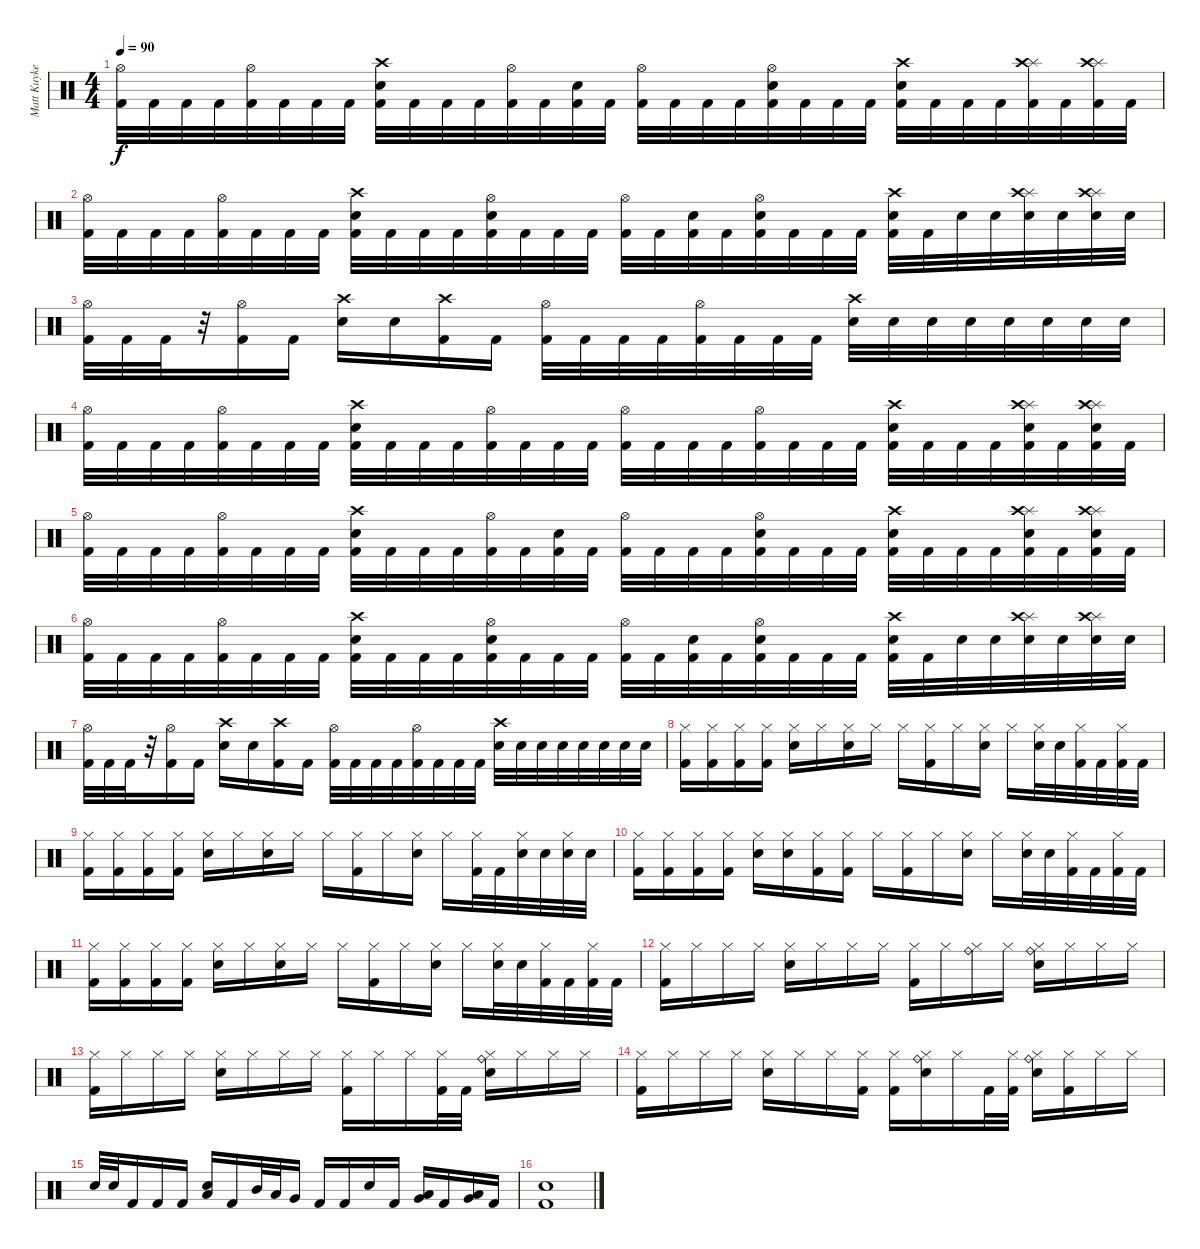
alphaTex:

\track ("Matt Kuykendall (Drums)" "Matt Kuyke") {instrument percussion}
\staff {score}
\articulation defaults
\ts (4 4)
\tempo 90
\clef neutral
\ks c
("Hi-Hat (open)" "Kick (hit) 2").32{dy f} "Kick (hit) 2".32 "Kick (hit) 2".32 "Kick (hit) 2".32 ("Hi-Hat (open)" "Kick (hit) 2").32 "Kick (hit) 2".32 "Kick (hit) 2".32 "Kick (hit) 2".32 ("Crash high (hit)" "Snare (hit) 2" "Kick (hit) 2").32 "Kick (hit) 2".32 "Kick (hit) 2".32 "Kick (hit) 2".32 ("Hi-Hat (open)" "Kick (hit) 2").32 "Kick (hit) 2".32 ("Snare (hit) 2" "Kick (hit) 2").32 "Kick (hit) 2".32 ("Hi-Hat (open)" "Kick (hit) 2").32 "Kick (hit) 2".32 "Kick (hit) 2".32 "Kick (hit) 2".32 ("Hi-Hat (open)" "Snare (hit) 2" "Kick (hit) 2").32 "Kick (hit) 2".32 "Kick (hit) 2".32 "Kick (hit) 2".32 ("Crash high (hit)" "Snare (hit) 2" "Kick (hit) 2").32 "Kick (hit) 2".32 "Kick (hit) 2".32 "Kick (hit) 2".32 ("Splash (hit)" "Crash high (hit)" "Kick (hit) 2").32 "Kick (hit) 2".32 ("Splash (hit)" "Crash high (hit)" "Kick (hit) 2").32 "Kick (hit) 2".32 |
("Hi-Hat (open)" "Kick (hit) 2").32 "Kick (hit) 2".32 "Kick (hit) 2".32 "Kick (hit) 2".32 ("Hi-Hat (open)" "Kick (hit) 2").32 "Kick (hit) 2".32 "Kick (hit) 2".32 "Kick (hit) 2".32 ("Crash high (hit)" "Snare (hit) 2" "Kick (hit) 2").32 "Kick (hit) 2".32 "Kick (hit) 2".32 "Kick (hit) 2".32 ("Hi-Hat (open)" "Snare (hit) 2" "Kick (hit) 2").32 "Kick (hit) 2".32 "Kick (hit) 2".32 "Kick (hit) 2".32 ("Hi-Hat (open)" "Kick (hit) 2").32 "Kick (hit) 2".32 ("Snare (hit) 2" "Kick (hit) 2").32 "Kick (hit) 2".32 ("Hi-Hat (open)" "Snare (hit) 2" "Kick (hit) 2").32 "Kick (hit) 2".32 "Kick (hit) 2".32 "Kick (hit) 2".32 ("Crash high (hit)" "Snare (hit) 2" "Kick (hit) 2").32 "Kick (hit) 2".32 "Snare (hit) 2".32 "Snare (hit) 2".32 ("Splash (hit)" "Crash high (hit)" "Snare (hit) 2").32 "Snare (hit) 2".32 ("Splash (hit)" "Crash high (hit)" "Snare (hit) 2").32 "Snare (hit) 2".32 |
("Hi-Hat (open)" "Kick (hit) 2").32 "Kick (hit) 2".32 "Kick (hit) 2".32 r.32 ("Hi-Hat (open)" "Kick (hit) 2").16 "Kick (hit) 2".16 ("Crash high (hit)" "Snare (hit) 2").16 "Snare (hit) 2".16 ("Crash high (hit)" "Kick (hit) 2").16 "Kick (hit) 2".16 ("Hi-Hat (open)" "Kick (hit) 2").32 "Kick (hit) 2".32 "Kick (hit) 2".32 "Kick (hit) 2".32 ("Hi-Hat (open)" "Kick (hit) 2").32 "Kick (hit) 2".32 "Kick (hit) 2".32 "Kick (hit) 2".32 ("Crash high (hit)" "Snare (hit) 2").32 "Snare (hit) 2".32 "Snare (hit) 2".32 "Snare (hit) 2".32 "Snare (hit) 2".32 "Snare (hit) 2".32 "Snare (hit) 2".32 "Snare (hit) 2".32 |
("Hi-Hat (open)" "Kick (hit) 2").32 "Kick (hit) 2".32 "Kick (hit) 2".32 "Kick (hit) 2".32 ("Hi-Hat (open)" "Kick (hit) 2").32 "Kick (hit) 2".32 "Kick (hit) 2".32 "Kick (hit) 2".32 ("Crash high (hit)" "Snare (hit) 2" "Kick (hit) 2").32 "Kick (hit) 2".32 "Kick (hit) 2".32 "Kick (hit) 2".32 ("Hi-Hat (open)" "Kick (hit) 2").32 "Kick (hit) 2".32 "Kick (hit) 2".32 "Kick (hit) 2".32 ("Hi-Hat (open)" "Kick (hit) 2").32 "Kick (hit) 2".32 "Kick (hit) 2".32 "Kick (hit) 2".32 ("Hi-Hat (open)" "Kick (hit) 2").32 "Kick (hit) 2".32 "Kick (hit) 2".32 "Kick (hit) 2".32 ("Crash high (hit)" "Snare (hit) 2" "Kick (hit) 2").32 "Kick (hit) 2".32 "Kick (hit) 2".32 "Kick (hit) 2".32 ("Splash (hit)" "Crash high (hit)" "Snare (hit) 2" "Kick (hit) 2").32 "Kick (hit) 2".32 ("Splash (hit)" "Crash high (hit)" "Snare (hit) 2" "Kick (hit) 2").32 "Kick (hit) 2".32 |
("Hi-Hat (open)" "Kick (hit) 2").32 "Kick (hit) 2".32 "Kick (hit) 2".32 "Kick (hit) 2".32 ("Hi-Hat (open)" "Kick (hit) 2").32 "Kick (hit) 2".32 "Kick (hit) 2".32 "Kick (hit) 2".32 ("Crash high (hit)" "Snare (hit) 2" "Kick (hit) 2").32 "Kick (hit) 2".32 "Kick (hit) 2".32 "Kick (hit) 2".32 ("Hi-Hat (open)" "Kick (hit) 2").32 "Kick (hit) 2".32 ("Snare (hit) 2" "Kick (hit) 2").32 "Kick (hit) 2".32 ("Hi-Hat (open)" "Kick (hit) 2").32 "Kick (hit) 2".32 "Kick (hit) 2".32 "Kick (hit) 2".32 ("Hi-Hat (open)" "Snare (hit) 2" "Kick (hit) 2").32 "Kick (hit) 2".32 "Kick (hit) 2".32 "Kick (hit) 2".32 ("Crash high (hit)" "Snare (hit) 2" "Kick (hit) 2").32 "Kick (hit) 2".32 "Kick (hit) 2".32 "Kick (hit) 2".32 ("Splash (hit)" "Crash high (hit)" "Snare (hit) 2" "Kick (hit) 2").32 "Kick (hit) 2".32 ("Splash (hit)" "Crash high (hit)" "Snare (hit) 2" "Kick (hit) 2").32 "Kick (hit) 2".32 |
("Hi-Hat (open)" "Kick (hit) 2").32 "Kick (hit) 2".32 "Kick (hit) 2".32 "Kick (hit) 2".32 ("Hi-Hat (open)" "Kick (hit) 2").32 "Kick (hit) 2".32 "Kick (hit) 2".32 "Kick (hit) 2".32 ("Crash high (hit)" "Snare (hit) 2" "Kick (hit) 2").32 "Kick (hit) 2".32 "Kick (hit) 2".32 "Kick (hit) 2".32 ("Hi-Hat (open)" "Snare (hit) 2" "Kick (hit) 2").32 "Kick (hit) 2".32 "Kick (hit) 2".32 "Kick (hit) 2".32 ("Hi-Hat (open)" "Kick (hit) 2").32 "Kick (hit) 2".32 ("Snare (hit) 2" "Kick (hit) 2").32 "Kick (hit) 2".32 ("Hi-Hat (open)" "Snare (hit) 2" "Kick (hit) 2").32 "Kick (hit) 2".32 "Kick (hit) 2".32 "Kick (hit) 2".32 ("Crash high (hit)" "Snare (hit) 2" "Kick (hit) 2").32 "Kick (hit) 2".32 "Snare (hit) 2".32 "Snare (hit) 2".32 ("Splash (hit)" "Crash high (hit)" "Snare (hit) 2").32 "Snare (hit) 2".32 ("Splash (hit)" "Crash high (hit)" "Snare (hit) 2").32 "Snare (hit) 2".32 |
("Hi-Hat (open)" "Kick (hit) 2").32 "Kick (hit) 2".32 "Kick (hit) 2".32 r.32 ("Hi-Hat (open)" "Kick (hit) 2").16 "Kick (hit) 2".16 ("Crash high (hit)" "Snare (hit) 2").16 "Snare (hit) 2".16 ("Crash high (hit)" "Kick (hit) 2").16 "Kick (hit) 2".16 ("Hi-Hat (open)" "Kick (hit) 2").32 "Kick (hit) 2".32 "Kick (hit) 2".32 "Kick (hit) 2".32 ("Hi-Hat (open)" "Kick (hit) 2").32 "Kick (hit) 2".32 "Kick (hit) 2".32 "Kick (hit) 2".32 ("Crash high (hit)" "Snare (hit) 2").32 "Snare (hit) 2".32 "Snare (hit) 2".32 "Snare (hit) 2".32 "Snare (hit) 2".32 "Snare (hit) 2".32 "Snare (hit) 2".32 "Snare (hit) 2".32 |
("Hi-Hat (closed)" "Kick (hit) 2").16 ("Hi-Hat (closed)" "Kick (hit) 2").16 ("Hi-Hat (closed)" "Kick (hit) 2").16 ("Hi-Hat (closed)" "Kick (hit) 2").16 ("Hi-Hat (closed)" "Snare (hit) 2").16 "Hi-Hat (closed)".16 ("Hi-Hat (closed)" "Snare (hit) 2").16 "Hi-Hat (closed)".16 "Hi-Hat (closed)".16 ("Hi-Hat (closed)" "Kick (hit) 2").16 "Hi-Hat (closed)".16 ("Hi-Hat (closed)" "Snare (hit) 2").16 "Hi-Hat (closed)".16 ("Hi-Hat (closed)" "Snare (hit) 2").32 "Snare (hit) 2".32 ("Hi-Hat (closed)" "Kick (hit) 2").32 "Kick (hit) 2".32 ("Hi-Hat (closed)" "Kick (hit) 2").32 "Kick (hit) 2".32 |
("Hi-Hat (closed)" "Kick (hit) 2").16 ("Hi-Hat (closed)" "Kick (hit) 2").16 ("Hi-Hat (closed)" "Kick (hit) 2").16 ("Hi-Hat (closed)" "Kick (hit) 2").16 ("Hi-Hat (closed)" "Snare (hit) 2").16 "Hi-Hat (closed)".16 ("Hi-Hat (closed)" "Snare (hit) 2").16 "Hi-Hat (closed)".16 "Hi-Hat (closed)".16 ("Hi-Hat (closed)" "Kick (hit) 2").16 "Hi-Hat (closed)".16 ("Hi-Hat (closed)" "Snare (hit) 2").16 "Hi-Hat (closed)".16 ("Hi-Hat (closed)" "Kick (hit) 2").32 "Kick (hit) 2".32 ("Hi-Hat (closed)" "Snare (hit) 2").32 "Snare (hit) 2".32 ("Hi-Hat (closed)" "Snare (hit) 2").32 "Snare (hit) 2".32 |
("Hi-Hat (closed)" "Kick (hit) 2").16 ("Hi-Hat (closed)" "Kick (hit) 2").16 ("Hi-Hat (closed)" "Kick (hit) 2").16 ("Hi-Hat (closed)" "Kick (hit) 2").16 ("Hi-Hat (closed)" "Snare (hit) 2").16 ("Hi-Hat (closed)" "Snare (hit) 2").16 ("Hi-Hat (closed)" "Kick (hit) 2").16 ("Hi-Hat (closed)" "Kick (hit) 2").16 "Hi-Hat (closed)".16 ("Hi-Hat (closed)" "Kick (hit) 2").16 "Hi-Hat (closed)".16 ("Hi-Hat (closed)" "Snare (hit) 2").16 "Hi-Hat (closed)".16 ("Hi-Hat (closed)" "Snare (hit) 2").32 "Snare (hit) 2".32 ("Hi-Hat (closed)" "Kick (hit) 2").32 "Kick (hit) 2".32 ("Hi-Hat (closed)" "Kick (hit) 2").32 "Kick (hit) 2".32 |
("Hi-Hat (closed)" "Kick (hit) 2").16 ("Hi-Hat (closed)" "Kick (hit) 2").16 ("Hi-Hat (closed)" "Kick (hit) 2").16 ("Hi-Hat (closed)" "Kick (hit) 2").16 ("Hi-Hat (closed)" "Snare (hit) 2").16 "Hi-Hat (closed)".16 ("Hi-Hat (closed)" "Snare (hit) 2").16 "Hi-Hat (closed)".16 "Hi-Hat (closed)".16 ("Hi-Hat (closed)" "Kick (hit) 2").16 "Hi-Hat (closed)".16 ("Hi-Hat (closed)" "Snare (hit) 2").16 "Hi-Hat (closed)".16 ("Hi-Hat (closed)" "Snare (hit) 2").32 "Snare (hit) 2".32 ("Hi-Hat (closed)" "Kick (hit) 2").32 "Kick (hit) 2".32 ("Hi-Hat (closed)" "Kick (hit) 2").32 "Kick (hit) 2".32 |
("Hi-Hat (closed)" "Kick (hit) 2").16 "Hi-Hat (closed)".16 "Hi-Hat (closed)".16 "Hi-Hat (closed)".16 ("Hi-Hat (closed)" "Snare (hit) 2").16 "Hi-Hat (closed)".16 "Hi-Hat (closed)".16 "Hi-Hat (closed)".16 ("Hi-Hat (closed)" "Kick (hit) 2").16 "Hi-Hat (closed)".16 ("Hi-Hat (closed)" "Ride (bell)").16 "Hi-Hat (closed)".16 ("Hi-Hat (closed)" "Ride (bell)" "Snare (hit) 2").16 "Hi-Hat (closed)".16 "Hi-Hat (closed)".16 "Hi-Hat (closed)".16 |
("Hi-Hat (closed)" "Kick (hit) 2").16 "Hi-Hat (closed)".16 "Hi-Hat (closed)".16 "Hi-Hat (closed)".16 ("Hi-Hat (closed)" "Snare (hit) 2").16 "Hi-Hat (closed)".16 "Hi-Hat (closed)".16 "Hi-Hat (closed)".16 ("Hi-Hat (closed)" "Kick (hit) 2").16 "Hi-Hat (closed)".16 "Hi-Hat (closed)".16 ("Hi-Hat (closed)" "Kick (hit) 2").32 "Kick (hit) 2".32 ("Hi-Hat (closed)" "Ride (bell)" "Snare (hit) 2").16 "Hi-Hat (closed)".16 "Hi-Hat (closed)".16 "Hi-Hat (closed)".16 |
("Hi-Hat (closed)" "Kick (hit) 2").16 "Hi-Hat (closed)".16 "Hi-Hat (closed)".16 "Hi-Hat (closed)".16 ("Hi-Hat (closed)" "Snare (hit) 2").16 "Hi-Hat (closed)".16 "Hi-Hat (closed)".16 ("Hi-Hat (closed)" "Kick (hit) 2").16 ("Hi-Hat (closed)" "Kick (hit) 2").16 ("Hi-Hat (closed)" "Ride (bell)" "Snare (hit) 2").16 "Hi-Hat (closed)".16 "Kick (hit) 2".32 ("Hi-Hat (closed)" "Kick (hit) 2").32 ("Hi-Hat (closed)" "Ride (bell)" "Snare (hit) 2").16 ("Hi-Hat (closed)" "Kick (hit) 2").16 "Hi-Hat (closed)".16 "Hi-Hat (closed)".16 |
"Snare (hit) 2".32 "Snare (hit) 2".32 "Kick (hit) 2".16 "Kick (hit) 2".16 "Kick (hit) 2".16 ("Low Tom (hit)" "Snare (hit) 2").16 "Kick (hit) 2".16 "Mid Tom (hit)".32 "Low Tom (hit)".32 "Very Low Tom (hit)".16 "Kick (hit) 2".16 "Kick (hit) 2".16 "Snare (hit) 2".16 "Kick (hit) 2".16 ("Low Tom (hit)" "Very Low Tom (hit)").16 "Kick (hit) 2".16 ("Very Low Tom (hit)" "Low Floor Tom (hit)").16 "Kick (hit) 2".16 |
("Snare (hit) 2" "Kick (hit) 2").1
